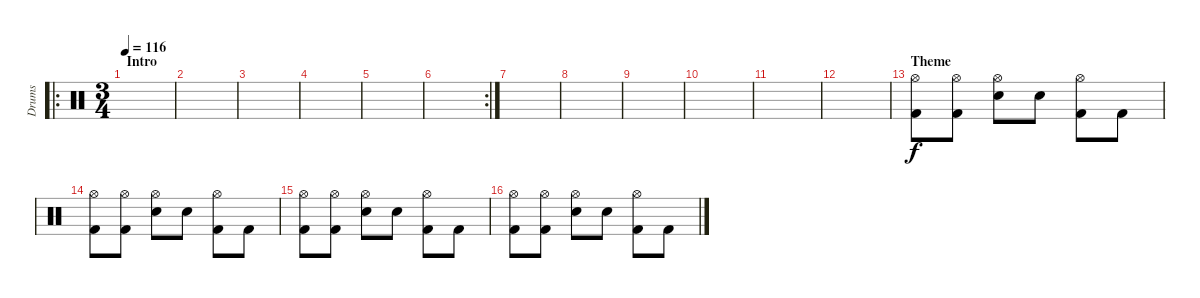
\track ("Drums" "Drums") {instrument percussion}
\staff {score}
\articulation defaults
\ro
\ts (3 4)
\section ("" "Intro")
\tempo 116
\clef neutral
\ks c
|
|
|
|
|
\rc 2
|
|
|
|
|
|
|
\section ("" "Theme")
("Hi-Hat (open)" "Kick (hit) 2").8 ("Hi-Hat (open)" "Kick (hit) 2").8 ("Hi-Hat (open)" "Snare (hit) 2").8 "Snare (hit) 2".8 ("Hi-Hat (open)" "Kick (hit) 2").8 "Kick (hit) 2".8 |
("Hi-Hat (open)" "Kick (hit) 2").8 ("Hi-Hat (open)" "Kick (hit) 2").8 ("Hi-Hat (open)" "Snare (hit) 2").8 "Snare (hit) 2".8 ("Hi-Hat (open)" "Kick (hit) 2").8 "Kick (hit) 2".8 |
("Hi-Hat (open)" "Kick (hit) 2").8 ("Hi-Hat (open)" "Kick (hit) 2").8 ("Hi-Hat (open)" "Snare (hit) 2").8 "Snare (hit) 2".8 ("Hi-Hat (open)" "Kick (hit) 2").8 "Kick (hit) 2".8 |
("Hi-Hat (open)" "Kick (hit) 2").8 ("Hi-Hat (open)" "Kick (hit) 2").8 ("Hi-Hat (open)" "Snare (hit) 2").8 "Snare (hit) 2".8 ("Hi-Hat (open)" "Kick (hit) 2").8 "Kick (hit) 2".8
